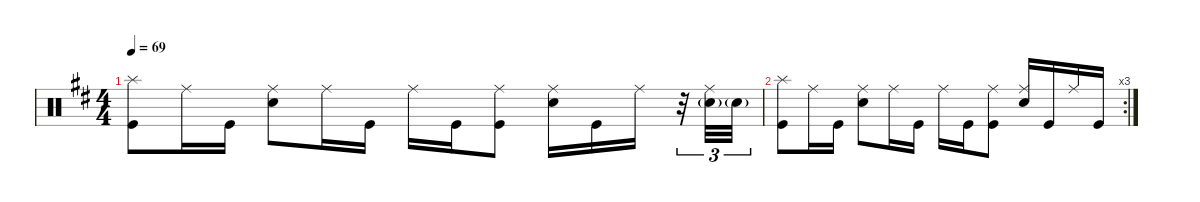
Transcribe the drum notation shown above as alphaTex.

\defaultSystemsLayout 4
\hideDynamics
\bracketExtendMode nobrackets
\singleTrackTrackNamePolicy hidden
\multiTrackTrackNamePolicy hidden
\firstSystemTrackNameMode fullname
\firstSystemTrackNameOrientation horizontal
\otherSystemsTrackNameOrientation horizontal
\track ("Percussion" "drm.") {instrument percussion}
\staff {score}
\articulation defaults
\ts (4 4)
\tempo 69
\clef neutral
\ks bminor
("Splash (hit)"{acc forcenatural} "Kick (hit)"{acc forcenatural}).8{dy f beam Down} "Ride (middle)"{acc forcenatural}.16{beam Down} "Kick (hit)"{acc forcenatural}.16{beam Down} ("Snare (hit) 2"{acc forcenatural} "Ride (middle)"{acc forcenatural}).8{beam Down} "Ride (middle)"{acc forcenatural}.16{beam Down} "Kick (hit)"{acc forcenatural}.16{beam Down} "Ride (middle)"{acc forcenatural}.16{beam Down} "Kick (hit)"{acc forcenatural}.16{beam Down} ("Kick (hit)"{acc forcenatural} "Ride (middle)"{acc forcenatural}).8{beam Down} ("Snare (hit) 2"{acc forcenatural} "Ride (middle)"{acc forcenatural}).16{beam Down} "Kick (hit)"{acc forcenatural}.16{beam Down} "Ride (middle)"{acc forcenatural}.16{beam Down} r.32{tu (3 2) beam Down} ("Snare (hit) 2"{g acc forcenatural} "Ride (middle)"{acc forcenatural}).32{tu (3 2) beam Down} "Snare (hit) 2"{g acc forcenatural}.32{tu (3 2) dy ff beam Down} |
\rc 3
("Splash (hit)"{acc forcenatural} "Kick (hit)"{acc forcenatural}).8{dy f beam Down} "Ride (middle)"{acc forcenatural}.16{beam Down} "Kick (hit)"{acc forcenatural}.16{beam Down} ("Snare (hit) 2"{acc forcenatural} "Ride (middle)"{acc forcenatural}).8{beam Down} "Ride (middle)"{acc forcenatural}.16{beam Down} "Kick (hit)"{acc forcenatural}.16{beam Down} "Ride (middle)"{acc forcenatural}.16{beam Down} "Kick (hit)"{acc forcenatural}.16{beam Down} ("Kick (hit)"{acc forcenatural} "Ride (middle)"{acc forcenatural}).8{beam Down} ("Snare (hit) 2"{acc forcenatural} "Ride (middle)"{acc forcenatural}).16{beam Up} "Kick (hit)"{acc forcenatural}.16{beam Up} "Ride (middle)"{acc forcenatural}.16{beam Up} "Kick (hit)"{acc forcenatural}.16{beam Up}
